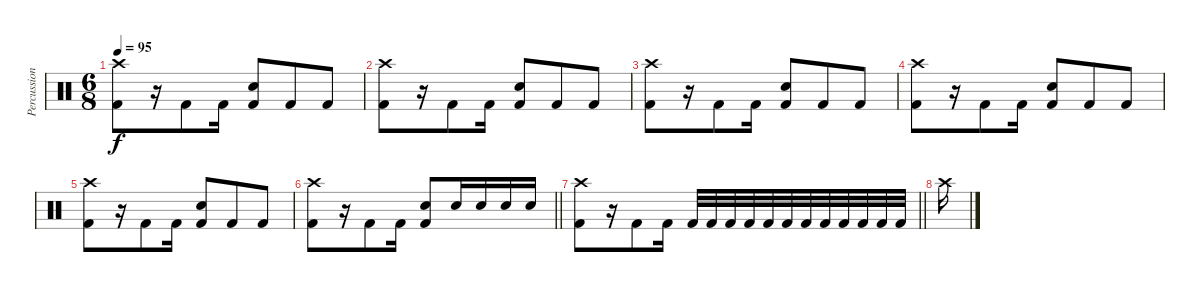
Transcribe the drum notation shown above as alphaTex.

\track ("Percussion" "Percussion") {instrument percussion}
\staff {score}
\articulation defaults
\ts (6 8)
\tempo 95
\clef neutral
\ks c
("Crash high (hit)" "Kick (hit) 2").8{dy f} r.16 "Kick (hit) 2".8 "Kick (hit) 2".16 ("Snare (hit) 2" "Kick (hit) 2").8 "Kick (hit) 2".8 "Kick (hit) 2".8 |
("Crash high (hit)" "Kick (hit) 2").8 r.16 "Kick (hit) 2".8 "Kick (hit) 2".16 ("Snare (hit) 2" "Kick (hit) 2").8 "Kick (hit) 2".8 "Kick (hit) 2".8 |
("Crash high (hit)" "Kick (hit) 2").8 r.16 "Kick (hit) 2".8 "Kick (hit) 2".16 ("Snare (hit) 2" "Kick (hit) 2").8 "Kick (hit) 2".8 "Kick (hit) 2".8 |
("Crash high (hit)" "Kick (hit) 2").8 r.16 "Kick (hit) 2".8 "Kick (hit) 2".16 ("Snare (hit) 2" "Kick (hit) 2").8 "Kick (hit) 2".8 "Kick (hit) 2".8 |
("Crash high (hit)" "Kick (hit) 2").8 r.16 "Kick (hit) 2".8 "Kick (hit) 2".16 ("Snare (hit) 2" "Kick (hit) 2").8 "Kick (hit) 2".8 "Kick (hit) 2".8 |
\barLineRight lightlight
("Crash high (hit)" "Kick (hit) 2").8 r.16 "Kick (hit) 2".8 "Kick (hit) 2".16 ("Snare (hit) 2" "Kick (hit) 2").8 "Snare (hit) 2".16 "Snare (hit) 2".16 "Snare (hit) 2".16 "Snare (hit) 2".16 |
\barLineRight lightlight
("Crash high (hit)" "Kick (hit) 2").8 r.16 "Kick (hit) 2".8 "Kick (hit) 2".16 "Kick (hit) 2".32 "Kick (hit) 2".32 "Kick (hit) 2".32 "Kick (hit) 2".32 "Kick (hit) 2".32 "Kick (hit) 2".32 "Kick (hit) 2".32 "Kick (hit) 2".32 "Kick (hit) 2".32 "Kick (hit) 2".32 "Kick (hit) 2".32 "Kick (hit) 2".32 |
"Crash high (hit)".16
